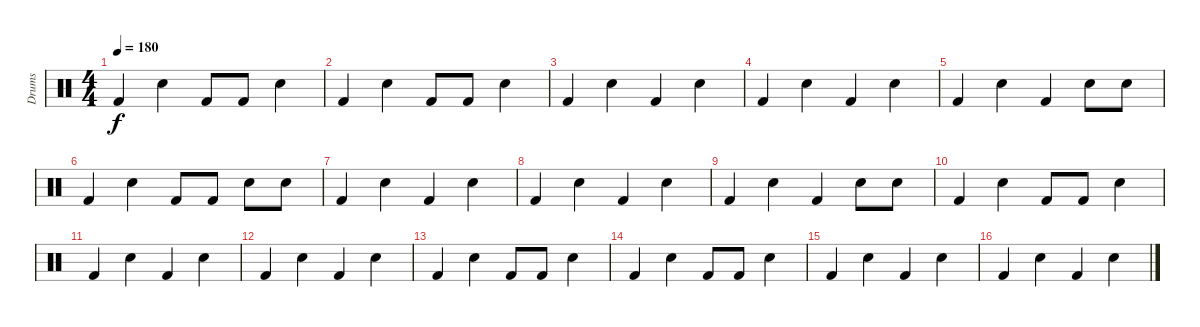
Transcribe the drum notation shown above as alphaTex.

\track ("Drums" "Drums") {instrument percussion}
\staff {score}
\articulation defaults
\ts (4 4)
\tempo 180
\clef neutral
\ks c "Kick (hit) 2".4{dy f} "Snare (hit) 2".4 "Kick (hit) 2".8 "Kick (hit) 2".8 "Snare (hit) 2".4
|
"Kick (hit) 2".4 "Snare (hit) 2".4 "Kick (hit) 2".8 "Kick (hit) 2".8 "Snare (hit) 2".4 |
"Kick (hit) 2".4 "Snare (hit) 2".4 "Kick (hit) 2".4 "Snare (hit) 2".4 |
"Kick (hit) 2".4 "Snare (hit) 2".4 "Kick (hit) 2".4 "Snare (hit) 2".4 |
"Kick (hit) 2".4 "Snare (hit) 2".4 "Kick (hit) 2".4 "Snare (hit) 2".8 "Snare (hit) 2".8 |
"Kick (hit) 2".4 "Snare (hit) 2".4 "Kick (hit) 2".8 "Kick (hit) 2".8 "Snare (hit) 2".8 "Snare (hit) 2".8 |
"Kick (hit) 2".4 "Snare (hit) 2".4 "Kick (hit) 2".4 "Snare (hit) 2".4 |
"Kick (hit) 2".4 "Snare (hit) 2".4 "Kick (hit) 2".4 "Snare (hit) 2".4 |
"Kick (hit) 2".4 "Snare (hit) 2".4 "Kick (hit) 2".4 "Snare (hit) 2".8 "Snare (hit) 2".8 |
"Kick (hit) 2".4 "Snare (hit) 2".4 "Kick (hit) 2".8 "Kick (hit) 2".8 "Snare (hit) 2".4 |
"Kick (hit) 2".4 "Snare (hit) 2".4 "Kick (hit) 2".4 "Snare (hit) 2".4 |
"Kick (hit) 2".4 "Snare (hit) 2".4 "Kick (hit) 2".4 "Snare (hit) 2".4 |
"Kick (hit) 2".4 "Snare (hit) 2".4 "Kick (hit) 2".8 "Kick (hit) 2".8 "Snare (hit) 2".4 |
"Kick (hit) 2".4 "Snare (hit) 2".4 "Kick (hit) 2".8 "Kick (hit) 2".8 "Snare (hit) 2".4 |
"Kick (hit) 2".4 "Snare (hit) 2".4 "Kick (hit) 2".4 "Snare (hit) 2".4 |
"Kick (hit) 2".4 "Snare (hit) 2".4 "Kick (hit) 2".4 "Metronome (bell)".4
